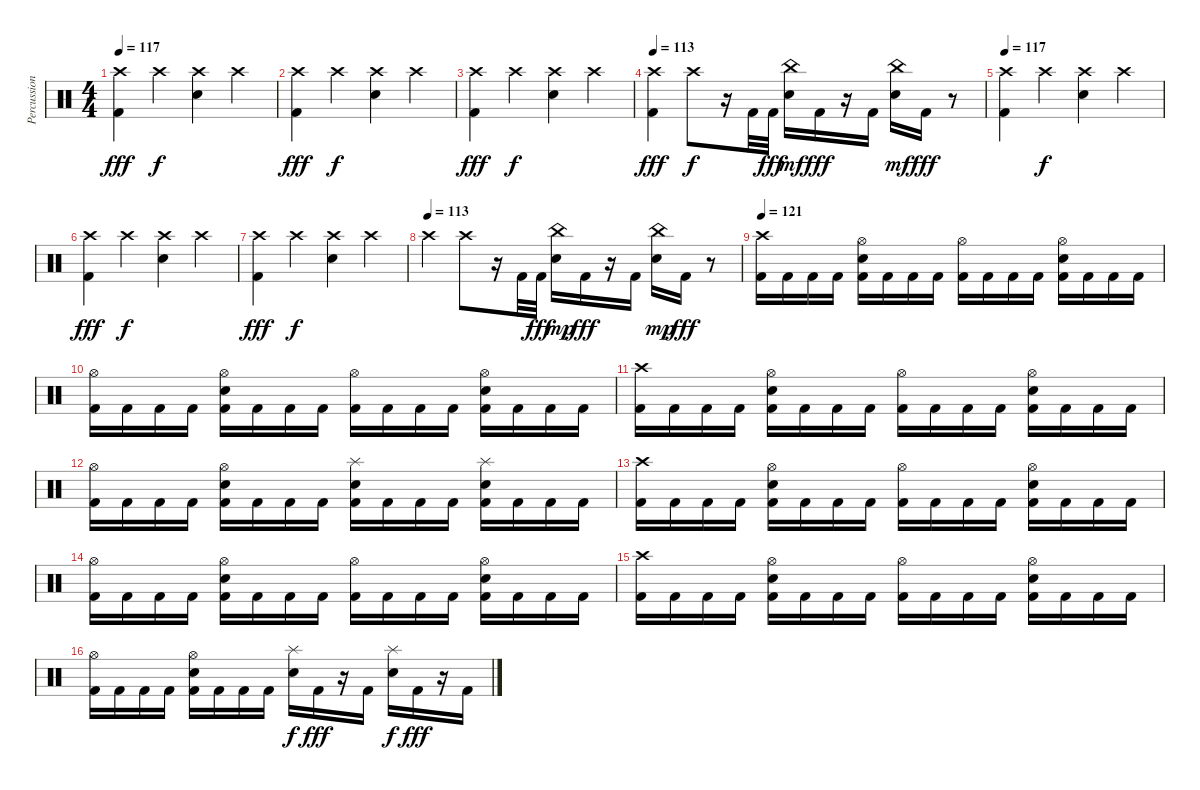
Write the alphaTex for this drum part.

\track ("Percussion" "Percussion") {instrument percussion}
\staff {score}
\articulation defaults
\ts (4 4)
\tempo 117
\clef neutral
\ks c
("Crash high (hit)" "Kick (hit) 2").4{dy fff} "Crash high (hit)".4{dy f} ("Crash high (hit)" "Snare (hit) 2").4 "Crash high (hit)".4 |
("Crash high (hit)" "Kick (hit) 2").4{dy fff} "Crash high (hit)".4{dy f} ("Crash high (hit)" "Snare (hit) 2").4 "Crash high (hit)".4 |
("Crash high (hit)" "Kick (hit) 2").4{dy fff} "Crash high (hit)".4{dy f} ("Crash high (hit)" "Snare (hit) 2").4 "Crash high (hit)".4 |
\tempo 113
("Crash high (hit)" "Kick (hit) 2").4{dy fff} "Crash high (hit)".8{dy f} r.16 "Kick (hit) 2".32 "Kick (hit) 2".32{dy fff} ("China (hit)" "Snare (hit) 2").16{dy mf} "Kick (hit) 2".16{dy fff} r.16 "Kick (hit) 2".16 ("China (hit)" "Snare (hit) 2").16{dy mf} "Kick (hit) 2".16{dy fff} r.8 |
\tempo 117
("Crash high (hit)" "Kick (hit) 2").4 "Crash high (hit)".4{dy f} ("Crash high (hit)" "Snare (hit) 2").4 "Crash high (hit)".4 |
("Crash high (hit)" "Kick (hit) 2").4{dy fff} "Crash high (hit)".4{dy f} ("Crash high (hit)" "Snare (hit) 2").4 "Crash high (hit)".4 |
("Crash high (hit)" "Kick (hit) 2").4{dy fff} "Crash high (hit)".4{dy f} ("Crash high (hit)" "Snare (hit) 2").4 "Crash high (hit)".4 |
\tempo (113)
"Crash high (hit)".4 "Crash high (hit)".8 r.16 "Kick (hit) 2".32 "Kick (hit) 2".32{dy fff} ("China (hit)" "Snare (hit) 2").16{dy mp} "Kick (hit) 2".16{dy fff} r.16 "Kick (hit) 2".16 ("China (hit)" "Snare (hit) 2").16{dy mp} "Kick (hit) 2".16{dy fff} r.8 |
\tempo 121
("Crash high (hit)" "Kick (hit) 2").16 "Kick (hit) 2".16 "Kick (hit) 2".16 "Kick (hit) 2".16 ("Hi-Hat (open)" "Snare (hit) 2" "Kick (hit) 2").16 "Kick (hit) 2".16 "Kick (hit) 2".16 "Kick (hit) 2".16 ("Hi-Hat (open)" "Kick (hit) 2").16 "Kick (hit) 2".16 "Kick (hit) 2".16 "Kick (hit) 2".16 ("Hi-Hat (open)" "Snare (hit) 2" "Kick (hit) 2").16 "Kick (hit) 2".16 "Kick (hit) 2".16 "Kick (hit) 2".16 |
("Hi-Hat (open)" "Kick (hit) 2").16 "Kick (hit) 2".16 "Kick (hit) 2".16 "Kick (hit) 2".16 ("Hi-Hat (open)" "Snare (hit) 2" "Kick (hit) 2").16 "Kick (hit) 2".16 "Kick (hit) 2".16 "Kick (hit) 2".16 ("Hi-Hat (open)" "Kick (hit) 2").16 "Kick (hit) 2".16 "Kick (hit) 2".16 "Kick (hit) 2".16 ("Hi-Hat (open)" "Snare (hit) 2" "Kick (hit) 2").16 "Kick (hit) 2".16 "Kick (hit) 2".16 "Kick (hit) 2".16 |
("Crash high (hit)" "Kick (hit) 2").16 "Kick (hit) 2".16 "Kick (hit) 2".16 "Kick (hit) 2".16 ("Hi-Hat (open)" "Snare (hit) 2" "Kick (hit) 2").16 "Kick (hit) 2".16 "Kick (hit) 2".16 "Kick (hit) 2".16 ("Hi-Hat (open)" "Kick (hit) 2").16 "Kick (hit) 2".16 "Kick (hit) 2".16 "Kick (hit) 2".16 ("Hi-Hat (open)" "Snare (hit) 2" "Kick (hit) 2").16 "Kick (hit) 2".16 "Kick (hit) 2".16 "Kick (hit) 2".16 |
("Hi-Hat (open)" "Kick (hit) 2").16 "Kick (hit) 2".16 "Kick (hit) 2".16 "Kick (hit) 2".16 ("Hi-Hat (open)" "Snare (hit) 2" "Kick (hit) 2").16 "Kick (hit) 2".16 "Kick (hit) 2".16 "Kick (hit) 2".16 ("Splash (hit)" "Snare (hit) 2" "Kick (hit) 2").16 "Kick (hit) 2".16 "Kick (hit) 2".16 "Kick (hit) 2".16 ("Splash (hit)" "Snare (hit) 2" "Kick (hit) 2").16 "Kick (hit) 2".16 "Kick (hit) 2".16 "Kick (hit) 2".16 |
("Crash high (hit)" "Kick (hit) 2").16 "Kick (hit) 2".16 "Kick (hit) 2".16 "Kick (hit) 2".16 ("Hi-Hat (open)" "Snare (hit) 2" "Kick (hit) 2").16 "Kick (hit) 2".16 "Kick (hit) 2".16 "Kick (hit) 2".16 ("Hi-Hat (open)" "Kick (hit) 2").16 "Kick (hit) 2".16 "Kick (hit) 2".16 "Kick (hit) 2".16 ("Hi-Hat (open)" "Snare (hit) 2" "Kick (hit) 2").16 "Kick (hit) 2".16 "Kick (hit) 2".16 "Kick (hit) 2".16 |
("Hi-Hat (open)" "Kick (hit) 2").16 "Kick (hit) 2".16 "Kick (hit) 2".16 "Kick (hit) 2".16 ("Hi-Hat (open)" "Snare (hit) 2" "Kick (hit) 2").16 "Kick (hit) 2".16 "Kick (hit) 2".16 "Kick (hit) 2".16 ("Hi-Hat (open)" "Kick (hit) 2").16 "Kick (hit) 2".16 "Kick (hit) 2".16 "Kick (hit) 2".16 ("Hi-Hat (open)" "Snare (hit) 2" "Kick (hit) 2").16 "Kick (hit) 2".16 "Kick (hit) 2".16 "Kick (hit) 2".16 |
("Crash high (hit)" "Kick (hit) 2").16 "Kick (hit) 2".16 "Kick (hit) 2".16 "Kick (hit) 2".16 ("Hi-Hat (open)" "Snare (hit) 2" "Kick (hit) 2").16 "Kick (hit) 2".16 "Kick (hit) 2".16 "Kick (hit) 2".16 ("Hi-Hat (open)" "Kick (hit) 2").16 "Kick (hit) 2".16 "Kick (hit) 2".16 "Kick (hit) 2".16 ("Hi-Hat (open)" "Snare (hit) 2" "Kick (hit) 2").16 "Kick (hit) 2".16 "Kick (hit) 2".16 "Kick (hit) 2".16 |
("Hi-Hat (open)" "Kick (hit) 2").16 "Kick (hit) 2".16 "Kick (hit) 2".16 "Kick (hit) 2".16 ("Hi-Hat (open)" "Snare (hit) 2" "Kick (hit) 2").16 "Kick (hit) 2".16 "Kick (hit) 2".16 "Kick (hit) 2".16 ("Splash (hit)" "Snare (hit) 2").16{dy f} "Kick (hit) 2".16{dy fff} r.16 "Kick (hit) 2".16 ("Splash (hit)" "Snare (hit) 2").16{dy f} "Kick (hit) 2".16{dy fff} r.16 "Kick (hit) 2".16
